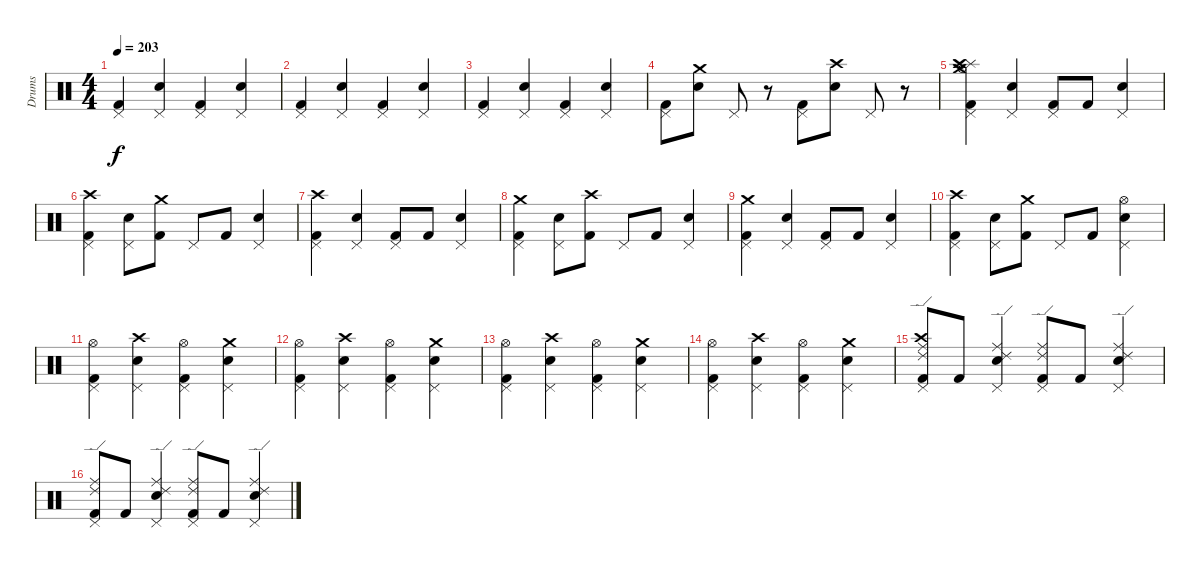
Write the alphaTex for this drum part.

\track ("Drums" "Drums") {instrument percussion}
\staff {score}
\articulation defaults
\ts (4 4)
\tempo 203
\clef neutral
\ks c
("Pedal Hi-Hat (hit)" "Kick (hit) 2").4{dy f} ("Pedal Hi-Hat (hit)" "Snare (hit) 2").4 ("Pedal Hi-Hat (hit)" "Kick (hit) 2").4 ("Pedal Hi-Hat (hit)" "Snare (hit) 2").4 |
("Pedal Hi-Hat (hit)" "Kick (hit) 2").4 ("Pedal Hi-Hat (hit)" "Snare (hit) 2").4 ("Pedal Hi-Hat (hit)" "Kick (hit) 2").4 ("Pedal Hi-Hat (hit)" "Snare (hit) 2").4 |
("Pedal Hi-Hat (hit)" "Kick (hit) 2").4 ("Pedal Hi-Hat (hit)" "Snare (hit) 2").4 ("Pedal Hi-Hat (hit)" "Kick (hit) 2").4 ("Pedal Hi-Hat (hit)" "Snare (hit) 2").4 |
("Pedal Hi-Hat (hit)" "Kick (hit) 2").8 ("Crash medium (hit)" "Snare (hit) 2").8 "Pedal Hi-Hat (hit)".8 r.8 ("Pedal Hi-Hat (hit)" "Kick (hit) 2").8 ("Crash high (hit)" "Snare (hit) 2").8 "Pedal Hi-Hat (hit)".8 r.8 |
("Pedal Hi-Hat (hit)" "Kick (hit) 2" "Hi-Hat (open)" "Splash (hit)" "Crash high (hit)" "Crash medium (hit)").4 ("Pedal Hi-Hat (hit)" "Snare (hit) 2").4 ("Pedal Hi-Hat (hit)" "Kick (hit) 2").8 "Kick (hit) 2".8 ("Pedal Hi-Hat (hit)" "Snare (hit) 2").4 |
("Pedal Hi-Hat (hit)" "Crash high (hit)" "Kick (hit) 2").4 ("Pedal Hi-Hat (hit)" "Snare (hit) 2").8 ("Crash medium (hit)" "Kick (hit) 2").8 "Pedal Hi-Hat (hit)".8 "Kick (hit) 2".8 ("Pedal Hi-Hat (hit)" "Snare (hit) 2").4 |
("Pedal Hi-Hat (hit)" "Kick (hit) 2" "Crash high (hit)").4 ("Pedal Hi-Hat (hit)" "Snare (hit) 2").4 ("Pedal Hi-Hat (hit)" "Kick (hit) 2").8 "Kick (hit) 2".8 ("Pedal Hi-Hat (hit)" "Snare (hit) 2").4 |
("Pedal Hi-Hat (hit)" "Crash medium (hit)" "Kick (hit) 2").4 ("Pedal Hi-Hat (hit)" "Snare (hit) 2").8 ("Crash high (hit)" "Kick (hit) 2").8 "Pedal Hi-Hat (hit)".8 "Kick (hit) 2".8 ("Pedal Hi-Hat (hit)" "Snare (hit) 2").4 |
("Pedal Hi-Hat (hit)" "Kick (hit) 2" "Crash medium (hit)").4 ("Pedal Hi-Hat (hit)" "Snare (hit) 2").4 ("Pedal Hi-Hat (hit)" "Kick (hit) 2").8 "Kick (hit) 2".8 ("Pedal Hi-Hat (hit)" "Snare (hit) 2").4 |
("Pedal Hi-Hat (hit)" "Crash high (hit)" "Kick (hit) 2").4 ("Pedal Hi-Hat (hit)" "Snare (hit) 2").8 ("Crash medium (hit)" "Kick (hit) 2").8 "Pedal Hi-Hat (hit)".8 "Kick (hit) 2".8 ("Pedal Hi-Hat (hit)" "Hi-Hat (open)" "Snare (hit) 2").4 |
("Kick (hit) 2" "Hi-Hat (open)" "Pedal Hi-Hat (hit)").4 ("Pedal Hi-Hat (hit)" "Snare (hit) 2" "Crash high (hit)").4 ("Pedal Hi-Hat (hit)" "Kick (hit) 2" "Hi-Hat (open)").4 ("Pedal Hi-Hat (hit)" "Snare (hit) 2" "Crash medium (hit)").4 |
("Pedal Hi-Hat (hit)" "Kick (hit) 2" "Hi-Hat (open)").4 ("Pedal Hi-Hat (hit)" "Snare (hit) 2" "Crash high (hit)").4 ("Pedal Hi-Hat (hit)" "Kick (hit) 2" "Hi-Hat (open)").4 ("Pedal Hi-Hat (hit)" "Snare (hit) 2" "Crash medium (hit)").4 |
("Pedal Hi-Hat (hit)" "Kick (hit) 2" "Hi-Hat (open)").4 ("Pedal Hi-Hat (hit)" "Snare (hit) 2" "Crash high (hit)").4 ("Pedal Hi-Hat (hit)" "Kick (hit) 2" "Hi-Hat (open)").4 ("Pedal Hi-Hat (hit)" "Snare (hit) 2" "Crash medium (hit)").4 |
("Hi-Hat (open)" "Pedal Hi-Hat (hit)" "Kick (hit) 2").4 ("Crash high (hit)" "Pedal Hi-Hat (hit)" "Snare (hit) 2").4 ("Hi-Hat (open)" "Pedal Hi-Hat (hit)" "Kick (hit) 2").4 ("Crash medium (hit)" "Pedal Hi-Hat (hit)" "Snare (hit) 2").4 |
("Ride (edge) 2" "Pedal Hi-Hat (hit)" "Crash high (hit)" "Ride (middle)" "Kick (hit) 2").8 "Kick (hit) 2".8 ("Ride (edge) 2" "Pedal Hi-Hat (hit)" "Ride (middle)" "Snare (hit) 2").4 ("Ride (edge) 2" "Pedal Hi-Hat (hit)" "Ride (middle)" "Kick (hit) 2").8 "Kick (hit) 2".8 ("Ride (edge) 2" "Pedal Hi-Hat (hit)" "Ride (middle)" "Snare (hit) 2").4 |
("Ride (edge) 2" "Pedal Hi-Hat (hit)" "Ride (middle)" "Kick (hit) 2").8 "Kick (hit) 2".8 ("Ride (edge) 2" "Pedal Hi-Hat (hit)" "Ride (middle)" "Snare (hit) 2").4 ("Ride (edge) 2" "Pedal Hi-Hat (hit)" "Ride (middle)" "Kick (hit) 2").8 "Kick (hit) 2".8 ("Ride (edge) 2" "Pedal Hi-Hat (hit)" "Ride (middle)" "Snare (hit) 2").4
